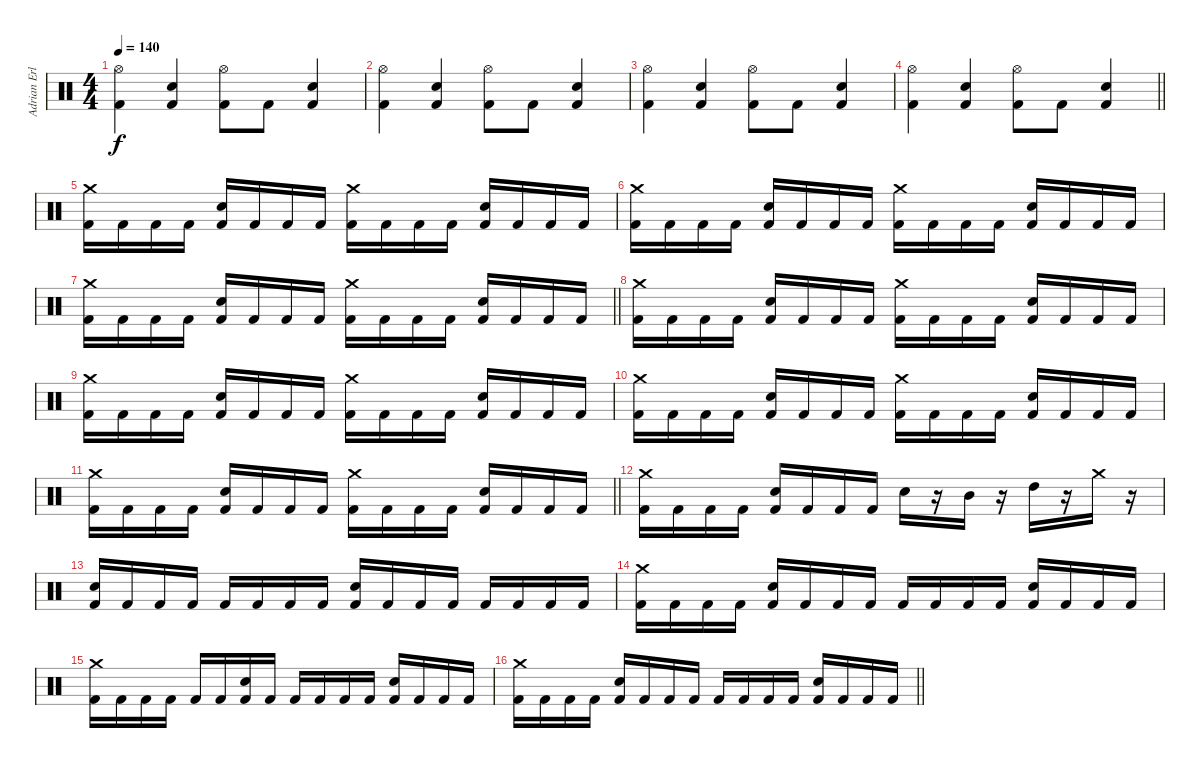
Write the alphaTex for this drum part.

\track ("Adrian Erlandsson" "Adrian Erl") {instrument percussion}
\staff {score}
\articulation defaults
\ts (4 4)
\tempo 140
\clef neutral
\ks c
("Kick (hit) 2" "Hi-Hat (open)").4{dy f} ("Kick (hit) 2" "Electric Snare (hit)").4 ("Kick (hit) 2" "Hi-Hat (open)").8 "Kick (hit) 2".8 ("Kick (hit) 2" "Electric Snare (hit)").4 |
("Kick (hit) 2" "Hi-Hat (open)").4 ("Kick (hit) 2" "Electric Snare (hit)").4 ("Kick (hit) 2" "Hi-Hat (open)").8 "Kick (hit) 2".8 ("Kick (hit) 2" "Electric Snare (hit)").4 |
("Kick (hit) 2" "Hi-Hat (open)").4 ("Kick (hit) 2" "Electric Snare (hit)").4 ("Kick (hit) 2" "Hi-Hat (open)").8 "Kick (hit) 2".8 ("Kick (hit) 2" "Electric Snare (hit)").4 |
\barLineRight lightlight
("Kick (hit) 2" "Hi-Hat (open)").4 ("Kick (hit) 2" "Electric Snare (hit)").4 ("Kick (hit) 2" "Hi-Hat (open)").8 "Kick (hit) 2".8 ("Kick (hit) 2" "Electric Snare (hit)").4 |
("Kick (hit) 2" "Crash medium (hit)").16 "Kick (hit) 2".16 "Kick (hit) 2".16 "Kick (hit) 2".16 ("Kick (hit) 2" "Electric Snare (hit)").16 "Kick (hit) 2".16 "Kick (hit) 2".16 "Kick (hit) 2".16 ("Kick (hit) 2" "Crash medium (hit)").16 "Kick (hit) 2".16 "Kick (hit) 2".16 "Kick (hit) 2".16 ("Kick (hit) 2" "Electric Snare (hit)").16 "Kick (hit) 2".16 "Kick (hit) 2".16 "Kick (hit) 2".16 |
("Kick (hit) 2" "Crash medium (hit)").16 "Kick (hit) 2".16 "Kick (hit) 2".16 "Kick (hit) 2".16 ("Kick (hit) 2" "Electric Snare (hit)").16 "Kick (hit) 2".16 "Kick (hit) 2".16 "Kick (hit) 2".16 ("Kick (hit) 2" "Crash medium (hit)").16 "Kick (hit) 2".16 "Kick (hit) 2".16 "Kick (hit) 2".16 ("Kick (hit) 2" "Electric Snare (hit)").16 "Kick (hit) 2".16 "Kick (hit) 2".16 "Kick (hit) 2".16 |
\barLineRight lightlight
("Kick (hit) 2" "Crash medium (hit)").16 "Kick (hit) 2".16 "Kick (hit) 2".16 "Kick (hit) 2".16 ("Kick (hit) 2" "Electric Snare (hit)").16 "Kick (hit) 2".16 "Kick (hit) 2".16 "Kick (hit) 2".16 ("Kick (hit) 2" "Crash medium (hit)").16 "Kick (hit) 2".16 "Kick (hit) 2".16 "Kick (hit) 2".16 ("Kick (hit) 2" "Electric Snare (hit)").16 "Kick (hit) 2".16 "Kick (hit) 2".16 "Kick (hit) 2".16 |
("Kick (hit) 2" "Crash medium (hit)").16 "Kick (hit) 2".16 "Kick (hit) 2".16 "Kick (hit) 2".16 ("Kick (hit) 2" "Electric Snare (hit)").16 "Kick (hit) 2".16 "Kick (hit) 2".16 "Kick (hit) 2".16 ("Kick (hit) 2" "Crash medium (hit)").16 "Kick (hit) 2".16 "Kick (hit) 2".16 "Kick (hit) 2".16 ("Kick (hit) 2" "Electric Snare (hit)").16 "Kick (hit) 2".16 "Kick (hit) 2".16 "Kick (hit) 2".16 |
("Kick (hit) 2" "Crash medium (hit)").16 "Kick (hit) 2".16 "Kick (hit) 2".16 "Kick (hit) 2".16 ("Kick (hit) 2" "Electric Snare (hit)").16 "Kick (hit) 2".16 "Kick (hit) 2".16 "Kick (hit) 2".16 ("Kick (hit) 2" "Crash medium (hit)").16 "Kick (hit) 2".16 "Kick (hit) 2".16 "Kick (hit) 2".16 ("Kick (hit) 2" "Electric Snare (hit)").16 "Kick (hit) 2".16 "Kick (hit) 2".16 "Kick (hit) 2".16 |
("Kick (hit) 2" "Crash medium (hit)").16 "Kick (hit) 2".16 "Kick (hit) 2".16 "Kick (hit) 2".16 ("Kick (hit) 2" "Electric Snare (hit)").16 "Kick (hit) 2".16 "Kick (hit) 2".16 "Kick (hit) 2".16 ("Kick (hit) 2" "Crash medium (hit)").16 "Kick (hit) 2".16 "Kick (hit) 2".16 "Kick (hit) 2".16 ("Kick (hit) 2" "Electric Snare (hit)").16 "Kick (hit) 2".16 "Kick (hit) 2".16 "Kick (hit) 2".16 |
\barLineRight lightlight
("Kick (hit) 2" "Crash medium (hit)").16 "Kick (hit) 2".16 "Kick (hit) 2".16 "Kick (hit) 2".16 ("Kick (hit) 2" "Electric Snare (hit)").16 "Kick (hit) 2".16 "Kick (hit) 2".16 "Kick (hit) 2".16 ("Kick (hit) 2" "Crash medium (hit)").16 "Kick (hit) 2".16 "Kick (hit) 2".16 "Kick (hit) 2".16 ("Kick (hit) 2" "Electric Snare (hit)").16 "Kick (hit) 2".16 "Kick (hit) 2".16 "Kick (hit) 2".16 |
("Kick (hit) 2" "Crash medium (hit)").16 "Kick (hit) 2".16 "Kick (hit) 2".16 "Kick (hit) 2".16 ("Kick (hit) 2" "Electric Snare (hit)").16 "Kick (hit) 2".16 "Kick (hit) 2".16 "Kick (hit) 2".16 "Snare (hit) 2".16 r.16 "Mid Tom (hit)".16 r.16 "High Tom (hit)".16 r.16 "Crash medium (hit)".16 r.16 |
("Kick (hit) 2" "Electric Snare (hit)").16 "Kick (hit) 2".16 "Kick (hit) 2".16 "Kick (hit) 2".16 "Kick (hit) 2".16 "Kick (hit) 2".16 "Kick (hit) 2".16 "Kick (hit) 2".16 ("Kick (hit) 2" "Electric Snare (hit)").16 "Kick (hit) 2".16 "Kick (hit) 2".16 "Kick (hit) 2".16 "Kick (hit) 2".16 "Kick (hit) 2".16 "Kick (hit) 2".16 "Kick (hit) 2".16 |
("Kick (hit) 2" "Crash medium (hit)").16 "Kick (hit) 2".16 "Kick (hit) 2".16 "Kick (hit) 2".16 ("Kick (hit) 2" "Electric Snare (hit)").16 "Kick (hit) 2".16 "Kick (hit) 2".16 "Kick (hit) 2".16 "Kick (hit) 2".16 "Kick (hit) 2".16 "Kick (hit) 2".16 "Kick (hit) 2".16 ("Kick (hit) 2" "Electric Snare (hit)").16 "Kick (hit) 2".16 "Kick (hit) 2".16 "Kick (hit) 2".16 |
("Kick (hit) 2" "Crash medium (hit)").16 "Kick (hit) 2".16 "Kick (hit) 2".16 "Kick (hit) 2".16 "Kick (hit) 2".16 "Kick (hit) 2".16 ("Kick (hit) 2" "Electric Snare (hit)").16 "Kick (hit) 2".16 "Kick (hit) 2".16 "Kick (hit) 2".16 "Kick (hit) 2".16 "Kick (hit) 2".16 ("Kick (hit) 2" "Electric Snare (hit)").16 "Kick (hit) 2".16 "Kick (hit) 2".16 "Kick (hit) 2".16 |
\barLineRight lightlight
("Kick (hit) 2" "Crash medium (hit)").16 "Kick (hit) 2".16 "Kick (hit) 2".16 "Kick (hit) 2".16 ("Kick (hit) 2" "Electric Snare (hit)").16 "Kick (hit) 2".16 "Kick (hit) 2".16 "Kick (hit) 2".16 "Kick (hit) 2".16 "Kick (hit) 2".16 "Kick (hit) 2".16 "Kick (hit) 2".16 ("Kick (hit) 2" "Electric Snare (hit)").16 "Kick (hit) 2".16 "Kick (hit) 2".16 "Kick (hit) 2".16
